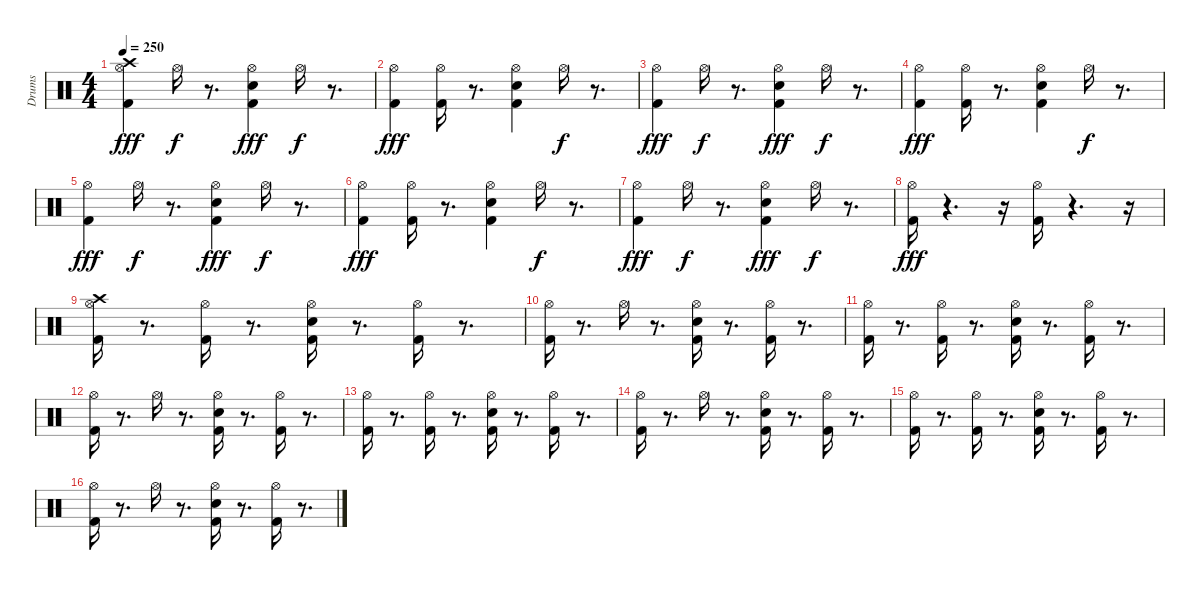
\track ("Drums" "Drums") {instrument percussion}
\staff {score}
\articulation defaults
\ts (4 4)
\tempo 250
\clef neutral
\ks c
("Hi-Hat (open)" "Kick (hit) 2" "Crash high (hit)").4{dy fff} "Hi-Hat (open)".16{dy f} r.8{d} ("Hi-Hat (open)" "Electric Snare (hit)" "Kick (hit) 2").4{dy fff} "Hi-Hat (open)".16{dy f} r.8{d} |
("Hi-Hat (open)" "Kick (hit) 2").4{dy fff} ("Hi-Hat (open)" "Kick (hit) 2").16 r.8{d} ("Hi-Hat (open)" "Electric Snare (hit)" "Kick (hit) 2").4 "Hi-Hat (open)".16{dy f} r.8{d} |
("Kick (hit) 2" "Hi-Hat (open)").4{dy fff} "Hi-Hat (open)".16{dy f} r.8{d} ("Hi-Hat (open)" "Electric Snare (hit)" "Kick (hit) 2").4{dy fff} "Hi-Hat (open)".16{dy f} r.8{d} |
("Hi-Hat (open)" "Kick (hit) 2").4{dy fff} ("Hi-Hat (open)" "Kick (hit) 2").16 r.8{d} ("Hi-Hat (open)" "Electric Snare (hit)" "Kick (hit) 2").4 "Hi-Hat (open)".16{dy f} r.8{d} |
("Kick (hit) 2" "Hi-Hat (open)").4{dy fff} "Hi-Hat (open)".16{dy f} r.8{d} ("Hi-Hat (open)" "Electric Snare (hit)" "Kick (hit) 2").4{dy fff} "Hi-Hat (open)".16{dy f} r.8{d} |
("Hi-Hat (open)" "Kick (hit) 2").4{dy fff} ("Hi-Hat (open)" "Kick (hit) 2").16 r.8{d} ("Hi-Hat (open)" "Electric Snare (hit)" "Kick (hit) 2").4 "Hi-Hat (open)".16{dy f} r.8{d} |
("Kick (hit) 2" "Hi-Hat (open)").4{dy fff} "Hi-Hat (open)".16{dy f} r.8{d} ("Hi-Hat (open)" "Electric Snare (hit)" "Kick (hit) 2").4{dy fff} "Hi-Hat (open)".16{dy f} r.8{d} |
("Kick (hit) 2" "Hi-Hat (open)").16{dy fff} r.4{d} r.16 ("Hi-Hat (open)" "Kick (hit) 2").16 r.4{d} r.16 |
("Kick (hit) 2" "Hi-Hat (open)" "Crash high (hit)").16 r.8{d} ("Kick (hit) 2" "Hi-Hat (open)").16 r.8{d} ("Kick (hit) 2" "Electric Snare (hit)" "Hi-Hat (open)").16 r.8{d} ("Kick (hit) 2" "Hi-Hat (open)").16 r.8{d} |
("Kick (hit) 2" "Hi-Hat (open)").16 r.8{d} "Hi-Hat (open)".16 r.8{d} ("Kick (hit) 2" "Electric Snare (hit)" "Hi-Hat (open)").16 r.8{d} ("Kick (hit) 2" "Hi-Hat (open)").16 r.8{d} |
("Hi-Hat (open)" "Kick (hit) 2").16 r.8{d} ("Kick (hit) 2" "Hi-Hat (open)").16 r.8{d} ("Kick (hit) 2" "Electric Snare (hit)" "Hi-Hat (open)").16 r.8{d} ("Kick (hit) 2" "Hi-Hat (open)").16 r.8{d} |
("Kick (hit) 2" "Hi-Hat (open)").16 r.8{d} "Hi-Hat (open)".16 r.8{d} ("Kick (hit) 2" "Electric Snare (hit)" "Hi-Hat (open)").16 r.8{d} ("Kick (hit) 2" "Hi-Hat (open)").16 r.8{d} |
("Hi-Hat (open)" "Kick (hit) 2").16 r.8{d} ("Kick (hit) 2" "Hi-Hat (open)").16 r.8{d} ("Kick (hit) 2" "Electric Snare (hit)" "Hi-Hat (open)").16 r.8{d} ("Kick (hit) 2" "Hi-Hat (open)").16 r.8{d} |
("Kick (hit) 2" "Hi-Hat (open)").16 r.8{d} "Hi-Hat (open)".16 r.8{d} ("Kick (hit) 2" "Electric Snare (hit)" "Hi-Hat (open)").16 r.8{d} ("Kick (hit) 2" "Hi-Hat (open)").16 r.8{d} |
("Hi-Hat (open)" "Kick (hit) 2").16 r.8{d} ("Kick (hit) 2" "Hi-Hat (open)").16 r.8{d} ("Kick (hit) 2" "Electric Snare (hit)" "Hi-Hat (open)").16 r.8{d} ("Kick (hit) 2" "Hi-Hat (open)").16 r.8{d} |
("Kick (hit) 2" "Hi-Hat (open)").16 r.8{d} "Hi-Hat (open)".16 r.8{d} ("Kick (hit) 2" "Electric Snare (hit)" "Hi-Hat (open)").16 r.8{d} ("Kick (hit) 2" "Hi-Hat (open)").16 r.8{d}
